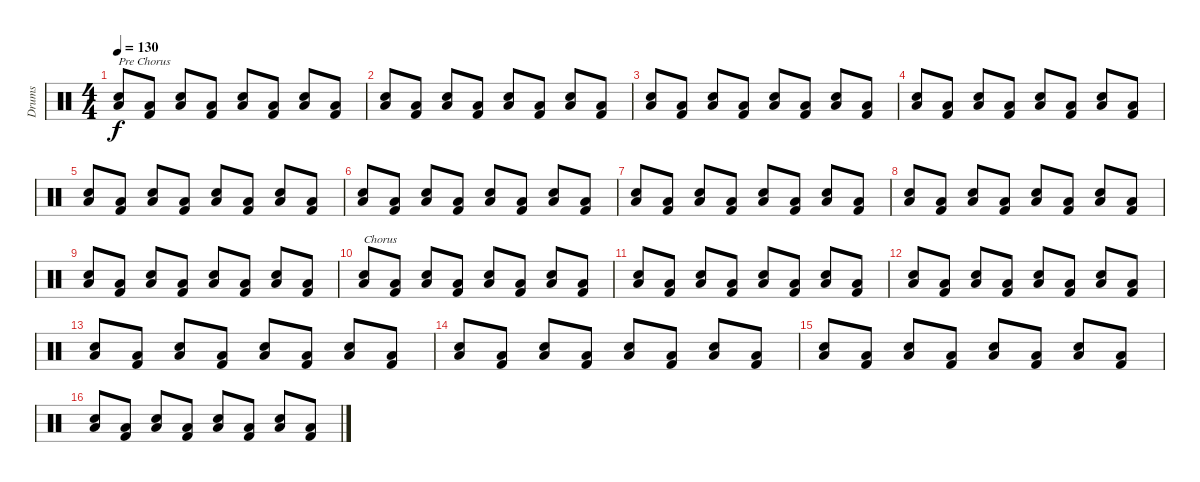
\track ("Drums" "Drums") {instrument percussion}
\staff {score}
\articulation defaults
\ts (4 4)
\tempo 130
\clef neutral
\ks c
("Snare (hit) 2" "Low Floor Tom (hit)").8{txt "Pre Chorus" dy f} ("Low Floor Tom (hit)" "Kick (hit) 2").8 ("Snare (hit) 2" "Low Floor Tom (hit)").8 ("Kick (hit) 2" "Low Floor Tom (hit)").8 ("Snare (hit) 2" "Low Floor Tom (hit)").8 ("Kick (hit) 2" "Low Floor Tom (hit)").8 ("Snare (hit) 2" "Low Floor Tom (hit)").8 ("Kick (hit) 2" "Low Floor Tom (hit)").8 |
("Snare (hit) 2" "Low Floor Tom (hit)").8 ("Low Floor Tom (hit)" "Kick (hit) 2").8 ("Snare (hit) 2" "Low Floor Tom (hit)").8 ("Kick (hit) 2" "Low Floor Tom (hit)").8 ("Snare (hit) 2" "Low Floor Tom (hit)").8 ("Kick (hit) 2" "Low Floor Tom (hit)").8 ("Snare (hit) 2" "Low Floor Tom (hit)").8 ("Kick (hit) 2" "Low Floor Tom (hit)").8 |
("Snare (hit) 2" "Low Floor Tom (hit)").8 ("Low Floor Tom (hit)" "Kick (hit) 2").8 ("Snare (hit) 2" "Low Floor Tom (hit)").8 ("Kick (hit) 2" "Low Floor Tom (hit)").8 ("Snare (hit) 2" "Low Floor Tom (hit)").8 ("Kick (hit) 2" "Low Floor Tom (hit)").8 ("Snare (hit) 2" "Low Floor Tom (hit)").8 ("Kick (hit) 2" "Low Floor Tom (hit)").8 |
("Snare (hit) 2" "Low Floor Tom (hit)").8 ("Low Floor Tom (hit)" "Kick (hit) 2").8 ("Snare (hit) 2" "Low Floor Tom (hit)").8 ("Kick (hit) 2" "Low Floor Tom (hit)").8 ("Snare (hit) 2" "Low Floor Tom (hit)").8 ("Kick (hit) 2" "Low Floor Tom (hit)").8 ("Snare (hit) 2" "Low Floor Tom (hit)").8 ("Kick (hit) 2" "Low Floor Tom (hit)").8 |
("Snare (hit) 2" "Low Floor Tom (hit)").8 ("Low Floor Tom (hit)" "Kick (hit) 2").8 ("Snare (hit) 2" "Low Floor Tom (hit)").8 ("Kick (hit) 2" "Low Floor Tom (hit)").8 ("Snare (hit) 2" "Low Floor Tom (hit)").8 ("Kick (hit) 2" "Low Floor Tom (hit)").8 ("Snare (hit) 2" "Low Floor Tom (hit)").8 ("Kick (hit) 2" "Low Floor Tom (hit)").8 |
("Snare (hit) 2" "Low Floor Tom (hit)").8 ("Low Floor Tom (hit)" "Kick (hit) 2").8 ("Snare (hit) 2" "Low Floor Tom (hit)").8 ("Kick (hit) 2" "Low Floor Tom (hit)").8 ("Snare (hit) 2" "Low Floor Tom (hit)").8 ("Kick (hit) 2" "Low Floor Tom (hit)").8 ("Snare (hit) 2" "Low Floor Tom (hit)").8 ("Kick (hit) 2" "Low Floor Tom (hit)").8 |
("Snare (hit) 2" "Low Floor Tom (hit)").8 ("Low Floor Tom (hit)" "Kick (hit) 2").8 ("Snare (hit) 2" "Low Floor Tom (hit)").8 ("Kick (hit) 2" "Low Floor Tom (hit)").8 ("Snare (hit) 2" "Low Floor Tom (hit)").8 ("Kick (hit) 2" "Low Floor Tom (hit)").8 ("Snare (hit) 2" "Low Floor Tom (hit)").8 ("Kick (hit) 2" "Low Floor Tom (hit)").8 |
("Snare (hit) 2" "Low Floor Tom (hit)").8 ("Low Floor Tom (hit)" "Kick (hit) 2").8 ("Snare (hit) 2" "Low Floor Tom (hit)").8 ("Kick (hit) 2" "Low Floor Tom (hit)").8 ("Snare (hit) 2" "Low Floor Tom (hit)").8 ("Kick (hit) 2" "Low Floor Tom (hit)").8 ("Snare (hit) 2" "Low Floor Tom (hit)").8 ("Kick (hit) 2" "Low Floor Tom (hit)").8 |
("Snare (hit) 2" "Low Floor Tom (hit)").8 ("Low Floor Tom (hit)" "Kick (hit) 2").8 ("Snare (hit) 2" "Low Floor Tom (hit)").8 ("Kick (hit) 2" "Low Floor Tom (hit)").8 ("Snare (hit) 2" "Low Floor Tom (hit)").8 ("Kick (hit) 2" "Low Floor Tom (hit)").8 ("Snare (hit) 2" "Low Floor Tom (hit)").8 ("Kick (hit) 2" "Low Floor Tom (hit)").8 |
("Snare (hit) 2" "Low Floor Tom (hit)").8{txt "Chorus"} ("Low Floor Tom (hit)" "Kick (hit) 2").8 ("Snare (hit) 2" "Low Floor Tom (hit)").8 ("Kick (hit) 2" "Low Floor Tom (hit)").8 ("Snare (hit) 2" "Low Floor Tom (hit)").8 ("Kick (hit) 2" "Low Floor Tom (hit)").8 ("Snare (hit) 2" "Low Floor Tom (hit)").8 ("Kick (hit) 2" "Low Floor Tom (hit)").8 |
("Snare (hit) 2" "Low Floor Tom (hit)").8 ("Low Floor Tom (hit)" "Kick (hit) 2").8 ("Snare (hit) 2" "Low Floor Tom (hit)").8 ("Kick (hit) 2" "Low Floor Tom (hit)").8 ("Snare (hit) 2" "Low Floor Tom (hit)").8 ("Kick (hit) 2" "Low Floor Tom (hit)").8 ("Snare (hit) 2" "Low Floor Tom (hit)").8 ("Kick (hit) 2" "Low Floor Tom (hit)").8 |
("Snare (hit) 2" "Low Floor Tom (hit)").8 ("Low Floor Tom (hit)" "Kick (hit) 2").8 ("Snare (hit) 2" "Low Floor Tom (hit)").8 ("Kick (hit) 2" "Low Floor Tom (hit)").8 ("Snare (hit) 2" "Low Floor Tom (hit)").8 ("Kick (hit) 2" "Low Floor Tom (hit)").8 ("Snare (hit) 2" "Low Floor Tom (hit)").8 ("Kick (hit) 2" "Low Floor Tom (hit)").8 |
("Snare (hit) 2" "Low Floor Tom (hit)").8 ("Low Floor Tom (hit)" "Kick (hit) 2").8 ("Snare (hit) 2" "Low Floor Tom (hit)").8 ("Kick (hit) 2" "Low Floor Tom (hit)").8 ("Snare (hit) 2" "Low Floor Tom (hit)").8 ("Kick (hit) 2" "Low Floor Tom (hit)").8 ("Snare (hit) 2" "Low Floor Tom (hit)").8 ("Kick (hit) 2" "Low Floor Tom (hit)").8 |
("Snare (hit) 2" "Low Floor Tom (hit)").8 ("Low Floor Tom (hit)" "Kick (hit) 2").8 ("Snare (hit) 2" "Low Floor Tom (hit)").8 ("Kick (hit) 2" "Low Floor Tom (hit)").8 ("Snare (hit) 2" "Low Floor Tom (hit)").8 ("Kick (hit) 2" "Low Floor Tom (hit)").8 ("Snare (hit) 2" "Low Floor Tom (hit)").8 ("Kick (hit) 2" "Low Floor Tom (hit)").8 |
("Snare (hit) 2" "Low Floor Tom (hit)").8 ("Low Floor Tom (hit)" "Kick (hit) 2").8 ("Snare (hit) 2" "Low Floor Tom (hit)").8 ("Kick (hit) 2" "Low Floor Tom (hit)").8 ("Snare (hit) 2" "Low Floor Tom (hit)").8 ("Kick (hit) 2" "Low Floor Tom (hit)").8 ("Snare (hit) 2" "Low Floor Tom (hit)").8 ("Kick (hit) 2" "Low Floor Tom (hit)").8 |
("Snare (hit) 2" "Low Floor Tom (hit)").8 ("Low Floor Tom (hit)" "Kick (hit) 2").8 ("Snare (hit) 2" "Low Floor Tom (hit)").8 ("Kick (hit) 2" "Low Floor Tom (hit)").8 ("Snare (hit) 2" "Low Floor Tom (hit)").8 ("Kick (hit) 2" "Low Floor Tom (hit)").8 ("Snare (hit) 2" "Low Floor Tom (hit)").8 ("Kick (hit) 2" "Low Floor Tom (hit)").8
